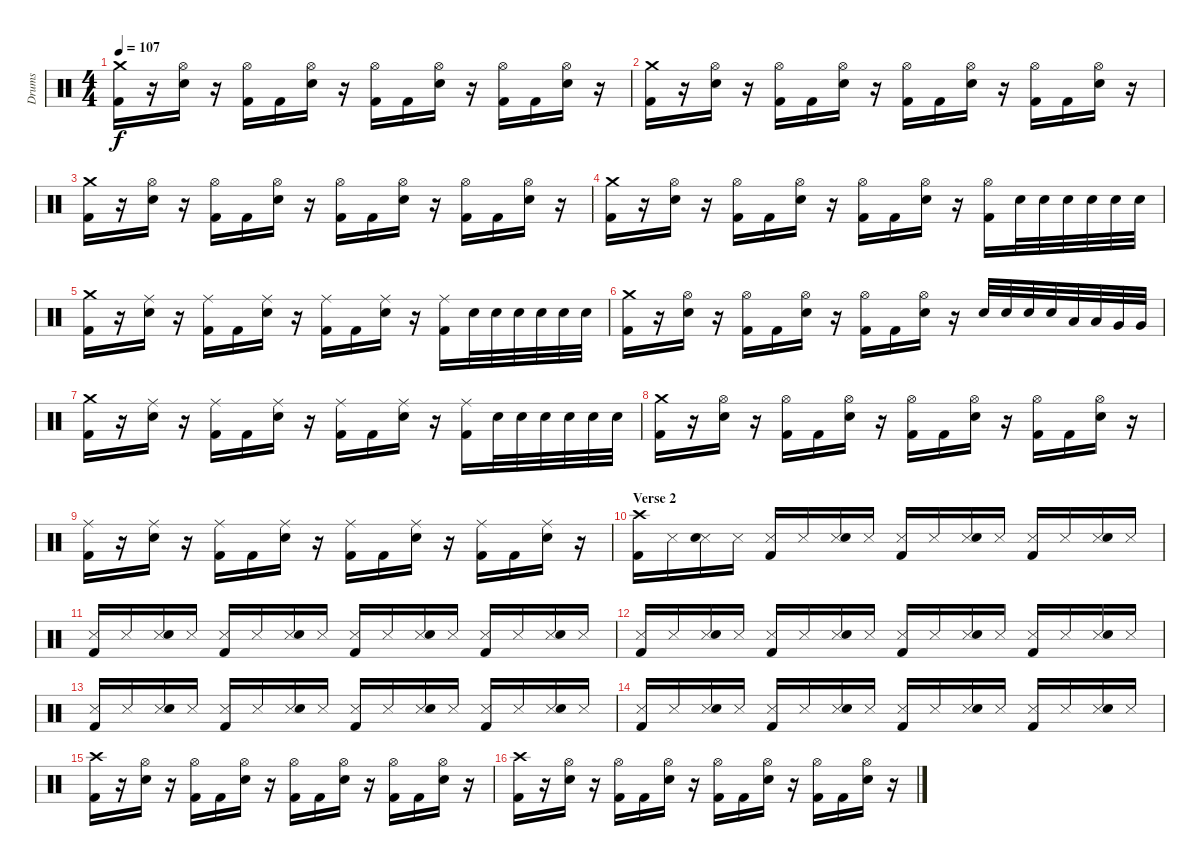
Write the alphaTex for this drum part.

\track ("Drums" "Drums") {instrument percussion}
\staff {score}
\articulation defaults
\ts (4 4)
\tempo 107
\clef neutral
\ks c
("Crash medium (hit)" "Kick (hit) 2").16{dy f} r.16 ("Hi-Hat (open)" "Electric Snare (hit)").16 r.16 ("Hi-Hat (open)" "Kick (hit) 2").16 "Kick (hit) 2".16 ("Hi-Hat (open)" "Electric Snare (hit)").16 r.16 ("Hi-Hat (open)" "Kick (hit) 2").16 "Kick (hit) 2".16 ("Hi-Hat (open)" "Electric Snare (hit)").16 r.16 ("Hi-Hat (open)" "Kick (hit) 2").16 "Kick (hit) 2".16 ("Hi-Hat (open)" "Electric Snare (hit)").16 r.16 |
("Crash medium (hit)" "Kick (hit) 2").16 r.16 ("Hi-Hat (open)" "Electric Snare (hit)").16 r.16 ("Hi-Hat (open)" "Kick (hit) 2").16 "Kick (hit) 2".16 ("Hi-Hat (open)" "Electric Snare (hit)").16 r.16 ("Hi-Hat (open)" "Kick (hit) 2").16 "Kick (hit) 2".16 ("Hi-Hat (open)" "Electric Snare (hit)").16 r.16 ("Hi-Hat (open)" "Kick (hit) 2").16 "Kick (hit) 2".16 ("Hi-Hat (open)" "Electric Snare (hit)").16 r.16 |
("Crash medium (hit)" "Kick (hit) 2").16 r.16 ("Hi-Hat (open)" "Electric Snare (hit)").16 r.16 ("Hi-Hat (open)" "Kick (hit) 2").16 "Kick (hit) 2".16 ("Hi-Hat (open)" "Electric Snare (hit)").16 r.16 ("Hi-Hat (open)" "Kick (hit) 2").16 "Kick (hit) 2".16 ("Hi-Hat (open)" "Electric Snare (hit)").16 r.16 ("Hi-Hat (open)" "Kick (hit) 2").16 "Kick (hit) 2".16 ("Hi-Hat (open)" "Electric Snare (hit)").16 r.16 |
("Crash medium (hit)" "Kick (hit) 2").16 r.16 ("Hi-Hat (open)" "Electric Snare (hit)").16 r.16 ("Hi-Hat (open)" "Kick (hit) 2").16 "Kick (hit) 2".16 ("Hi-Hat (open)" "Electric Snare (hit)").16 r.16 ("Hi-Hat (open)" "Kick (hit) 2").16 "Kick (hit) 2".16 ("Hi-Hat (open)" "Electric Snare (hit)").16 r.16 ("Hi-Hat (open)" "Kick (hit) 2").16 "Electric Snare (hit)".32 "Electric Snare (hit)".32 "Electric Snare (hit)".32 "Electric Snare (hit)".32 "Electric Snare (hit)".32 "Electric Snare (hit)".32 |
("Crash medium (hit)" "Kick (hit) 2").16 r.16 ("Ride (middle)" "Electric Snare (hit)").16 r.16 ("Ride (middle)" "Kick (hit) 2").16 "Kick (hit) 2".16 ("Ride (middle)" "Electric Snare (hit)").16 r.16 ("Ride (middle)" "Kick (hit) 2").16 "Kick (hit) 2".16 ("Ride (middle)" "Electric Snare (hit)").16 r.16 ("Ride (middle)" "Kick (hit) 2").16 "Electric Snare (hit)".32 "Electric Snare (hit)".32 "Electric Snare (hit)".32 "Electric Snare (hit)".32 "Electric Snare (hit)".32 "Electric Snare (hit)".32 |
("Crash medium (hit)" "Kick (hit) 2").16 r.16 ("Hi-Hat (open)" "Electric Snare (hit)").16 r.16 ("Hi-Hat (open)" "Kick (hit) 2").16 "Kick (hit) 2".16 ("Hi-Hat (open)" "Electric Snare (hit)").16 r.16 ("Hi-Hat (open)" "Kick (hit) 2").16 "Kick (hit) 2".16 ("Hi-Hat (open)" "Electric Snare (hit)").16 r.16 "Electric Snare (hit)".32 "Electric Snare (hit)".32 "Electric Snare (hit)".32 "Electric Snare (hit)".32 "Low Tom (hit)".32 "Low Tom (hit)".32 "Very Low Tom (hit)".32 "Very Low Tom (hit)".32 |
("Crash medium (hit)" "Kick (hit) 2").16 r.16 ("Ride (middle)" "Electric Snare (hit)").16 r.16 ("Ride (middle)" "Kick (hit) 2").16 "Kick (hit) 2".16 ("Ride (middle)" "Electric Snare (hit)").16 r.16 ("Ride (middle)" "Kick (hit) 2").16 "Kick (hit) 2".16 ("Ride (middle)" "Electric Snare (hit)").16 r.16 ("Ride (middle)" "Kick (hit) 2").16 "Electric Snare (hit)".32 "Electric Snare (hit)".32 "Electric Snare (hit)".32 "Electric Snare (hit)".32 "Electric Snare (hit)".32 "Electric Snare (hit)".32 |
("Crash medium (hit)" "Kick (hit) 2").16 r.16 ("Hi-Hat (open)" "Electric Snare (hit)").16 r.16 ("Hi-Hat (open)" "Kick (hit) 2").16 "Kick (hit) 2".16 ("Hi-Hat (open)" "Electric Snare (hit)").16 r.16 ("Hi-Hat (open)" "Kick (hit) 2").16 "Kick (hit) 2".16 ("Hi-Hat (open)" "Electric Snare (hit)").16 r.16 ("Hi-Hat (open)" "Kick (hit) 2").16 "Kick (hit) 2".16 ("Hi-Hat (open)" "Electric Snare (hit)").16 r.16 |
("Ride (middle)" "Kick (hit) 2").16 r.16 ("Ride (middle)" "Electric Snare (hit)").16 r.16 ("Ride (middle)" "Kick (hit) 2").16 "Kick (hit) 2".16 ("Ride (middle)" "Electric Snare (hit)").16 r.16 ("Ride (middle)" "Kick (hit) 2").16 "Kick (hit) 2".16 ("Ride (middle)" "Electric Snare (hit)").16 r.16 ("Ride (middle)" "Kick (hit) 2").16 "Kick (hit) 2".16 ("Ride (middle)" "Electric Snare (hit)").16 r.16 |
\section ("" "Verse 2")
("Crash high (hit)" "Kick (hit) 2").16 "Snare (side stick) 3".16 ("Snare (side stick) 3" "Electric Snare (hit)").16 "Snare (side stick) 3".16 ("Snare (side stick) 3" "Kick (hit) 2").16 "Snare (side stick) 3".16 ("Snare (side stick) 3" "Electric Snare (hit)").16 "Snare (side stick) 3".16 ("Snare (side stick) 3" "Kick (hit) 2").16 "Snare (side stick) 3".16 ("Snare (side stick) 3" "Electric Snare (hit)").16 "Snare (side stick) 3".16 ("Snare (side stick) 3" "Kick (hit) 2").16 "Snare (side stick) 3".16 ("Snare (side stick) 3" "Electric Snare (hit)").16 "Snare (side stick) 3".16 |
("Snare (side stick) 3" "Kick (hit) 2").16 "Snare (side stick) 3".16 ("Snare (side stick) 3" "Electric Snare (hit)").16 "Snare (side stick) 3".16 ("Snare (side stick) 3" "Kick (hit) 2").16 "Snare (side stick) 3".16 ("Snare (side stick) 3" "Electric Snare (hit)").16 "Snare (side stick) 3".16 ("Snare (side stick) 3" "Kick (hit) 2").16 "Snare (side stick) 3".16 ("Snare (side stick) 3" "Electric Snare (hit)").16 "Snare (side stick) 3".16 ("Snare (side stick) 3" "Kick (hit) 2").16 "Snare (side stick) 3".16 ("Snare (side stick) 3" "Electric Snare (hit)").16 "Snare (side stick) 3".16 |
("Snare (side stick) 3" "Kick (hit) 2").16 "Snare (side stick) 3".16 ("Snare (side stick) 3" "Electric Snare (hit)").16 "Snare (side stick) 3".16 ("Snare (side stick) 3" "Kick (hit) 2").16 "Snare (side stick) 3".16 ("Snare (side stick) 3" "Electric Snare (hit)").16 "Snare (side stick) 3".16 ("Snare (side stick) 3" "Kick (hit) 2").16 "Snare (side stick) 3".16 ("Snare (side stick) 3" "Electric Snare (hit)").16 "Snare (side stick) 3".16 ("Snare (side stick) 3" "Kick (hit) 2").16 "Snare (side stick) 3".16 ("Snare (side stick) 3" "Electric Snare (hit)").16 "Snare (side stick) 3".16 |
("Snare (side stick) 3" "Kick (hit) 2").16 "Snare (side stick) 3".16 ("Snare (side stick) 3" "Electric Snare (hit)").16 "Snare (side stick) 3".16 ("Snare (side stick) 3" "Kick (hit) 2").16 "Snare (side stick) 3".16 ("Snare (side stick) 3" "Electric Snare (hit)").16 "Snare (side stick) 3".16 ("Snare (side stick) 3" "Kick (hit) 2").16 "Snare (side stick) 3".16 ("Snare (side stick) 3" "Electric Snare (hit)").16 "Snare (side stick) 3".16 ("Snare (side stick) 3" "Kick (hit) 2").16 "Snare (side stick) 3".16 ("Snare (side stick) 3" "Electric Snare (hit)").16 "Snare (side stick) 3".16 |
("Snare (side stick) 3" "Kick (hit) 2").16 "Snare (side stick) 3".16 ("Snare (side stick) 3" "Electric Snare (hit)").16 "Snare (side stick) 3".16 ("Snare (side stick) 3" "Kick (hit) 2").16 "Snare (side stick) 3".16 ("Snare (side stick) 3" "Electric Snare (hit)").16 "Snare (side stick) 3".16 ("Snare (side stick) 3" "Kick (hit) 2").16 "Snare (side stick) 3".16 ("Snare (side stick) 3" "Electric Snare (hit)").16 "Snare (side stick) 3".16 ("Snare (side stick) 3" "Kick (hit) 2").16 "Snare (side stick) 3".16 ("Snare (side stick) 3" "Electric Snare (hit)").16 "Snare (side stick) 3".16 |
("Crash high (hit)" "Kick (hit) 2").16 r.16 ("Hi-Hat (open)" "Electric Snare (hit)").16 r.16 ("Hi-Hat (open)" "Kick (hit) 2").16 "Kick (hit) 2".16 ("Hi-Hat (open)" "Electric Snare (hit)").16 r.16 ("Hi-Hat (open)" "Kick (hit) 2").16 "Kick (hit) 2".16 ("Hi-Hat (open)" "Electric Snare (hit)").16 r.16 ("Hi-Hat (open)" "Kick (hit) 2").16 "Kick (hit) 2".16 ("Hi-Hat (open)" "Electric Snare (hit)").16 r.16 |
("Crash high (hit)" "Kick (hit) 2").16 r.16 ("Hi-Hat (open)" "Electric Snare (hit)").16 r.16 ("Hi-Hat (open)" "Kick (hit) 2").16 "Kick (hit) 2".16 ("Hi-Hat (open)" "Electric Snare (hit)").16 r.16 ("Hi-Hat (open)" "Kick (hit) 2").16 "Kick (hit) 2".16 ("Hi-Hat (open)" "Electric Snare (hit)").16 r.16 ("Hi-Hat (open)" "Kick (hit) 2").16 "Kick (hit) 2".16 ("Hi-Hat (open)" "Electric Snare (hit)").16 r.16
